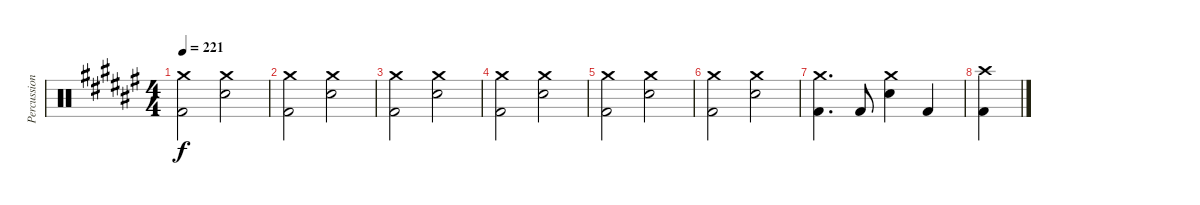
\track ("Percussions" "Percussion") {instrument percussion}
\staff {score}
\articulation defaults
\ts (4 4)
\tempo 221
\clef neutral
\ks d#minor
("Crash medium (hit)" "Kick (hit) 2").2{dy f} ("Crash medium (hit)" "Electric Snare (hit)").2 |
("Crash medium (hit)" "Kick (hit) 2").2 ("Crash medium (hit)" "Electric Snare (hit)").2 |
("Crash medium (hit)" "Kick (hit) 2").2 ("Crash medium (hit)" "Electric Snare (hit)").2 |
("Crash medium (hit)" "Kick (hit) 2").2 ("Crash medium (hit)" "Electric Snare (hit)").2 |
("Crash medium (hit)" "Kick (hit) 2").2 ("Crash medium (hit)" "Electric Snare (hit)").2 |
("Crash medium (hit)" "Kick (hit) 2").2 ("Crash medium (hit)" "Electric Snare (hit)").2 |
("Crash medium (hit)" "Kick (hit) 2").4{d} "Kick (hit) 2".8 ("Crash medium (hit)" "Electric Snare (hit)").4 "Kick (hit) 2".4 |
("Crash high (hit)" "Kick (hit) 2").4
